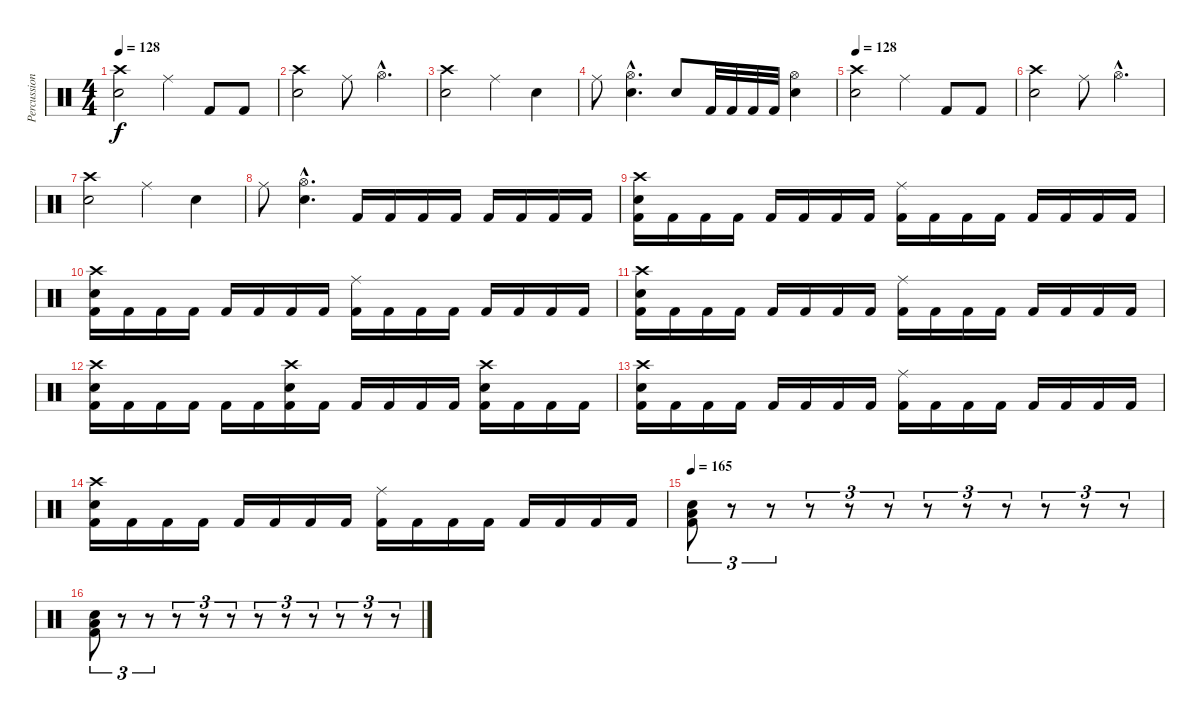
\track ("Percussion" "Percussion") {instrument percussion}
\staff {score}
\articulation defaults
\ts (4 4)
\tempo 128
\clef neutral
\ks c
("Crash high (hit)" "Electric Snare (hit)").2{dy f} "Ride (middle)".4 "Kick (hit) 2".8 "Kick (hit) 2".8 |
("Crash high (hit)" "Electric Snare (hit)").2 "Ride (middle)".8 "Hi-Hat (open)"{hac}.4{d} |
("Crash high (hit)" "Electric Snare (hit)").2 "Ride (middle)".4 "Electric Snare (hit)".4 |
"Ride (middle)".8 ("Hi-Hat (open)"{hac} "Electric Snare (hit)"{hac}).4{d} "Electric Snare (hit)".8 "Kick (hit) 2".32 "Kick (hit) 2".32 "Kick (hit) 2".32 "Kick (hit) 2".32 ("Hi-Hat (open)" "Electric Snare (hit)").4 |
\tempo 128
("Crash high (hit)" "Electric Snare (hit)").2 "Ride (middle)".4 "Kick (hit) 2".8 "Kick (hit) 2".8 |
("Crash high (hit)" "Electric Snare (hit)").2 "Ride (middle)".8 "Hi-Hat (open)"{hac}.4{d} |
("Crash high (hit)" "Electric Snare (hit)").2 "Ride (middle)".4 "Electric Snare (hit)".4 |
"Ride (middle)".8 ("Hi-Hat (open)"{hac} "Electric Snare (hit)"{hac}).4{d} "Kick (hit) 2".16 "Kick (hit) 2".16 "Kick (hit) 2".16 "Kick (hit) 2".16 "Kick (hit) 2".16 "Kick (hit) 2".16 "Kick (hit) 2".16 "Kick (hit) 2".16 |
("Crash high (hit)" "Electric Snare (hit)" "Kick (hit) 2").16 "Kick (hit) 2".16 "Kick (hit) 2".16 "Kick (hit) 2".16 "Kick (hit) 2".16 "Kick (hit) 2".16 "Kick (hit) 2".16 "Kick (hit) 2".16 ("Ride (middle)" "Kick (hit) 2").16 "Kick (hit) 2".16 "Kick (hit) 2".16 "Kick (hit) 2".16 "Kick (hit) 2".16 "Kick (hit) 2".16 "Kick (hit) 2".16 "Kick (hit) 2".16 |
("Crash high (hit)" "Electric Snare (hit)" "Kick (hit) 2").16 "Kick (hit) 2".16 "Kick (hit) 2".16 "Kick (hit) 2".16 "Kick (hit) 2".16 "Kick (hit) 2".16 "Kick (hit) 2".16 "Kick (hit) 2".16 ("Ride (middle)" "Kick (hit) 2").16 "Kick (hit) 2".16 "Kick (hit) 2".16 "Kick (hit) 2".16 "Kick (hit) 2".16 "Kick (hit) 2".16 "Kick (hit) 2".16 "Kick (hit) 2".16 |
("Crash high (hit)" "Electric Snare (hit)" "Kick (hit) 2").16 "Kick (hit) 2".16 "Kick (hit) 2".16 "Kick (hit) 2".16 "Kick (hit) 2".16 "Kick (hit) 2".16 "Kick (hit) 2".16 "Kick (hit) 2".16 ("Ride (middle)" "Kick (hit) 2").16 "Kick (hit) 2".16 "Kick (hit) 2".16 "Kick (hit) 2".16 "Kick (hit) 2".16 "Kick (hit) 2".16 "Kick (hit) 2".16 "Kick (hit) 2".16 |
("Crash high (hit)" "Electric Snare (hit)" "Kick (hit) 2").16 "Kick (hit) 2".16 "Kick (hit) 2".16 "Kick (hit) 2".16 "Kick (hit) 2".16 "Kick (hit) 2".16 ("Crash high (hit)" "Electric Snare (hit)" "Kick (hit) 2").16 "Kick (hit) 2".16 "Kick (hit) 2".16 "Kick (hit) 2".16 "Kick (hit) 2".16 "Kick (hit) 2".16 ("Crash high (hit)" "Electric Snare (hit)" "Kick (hit) 2").16 "Kick (hit) 2".16 "Kick (hit) 2".16 "Kick (hit) 2".16 |
("Crash high (hit)" "Electric Snare (hit)" "Kick (hit) 2").16 "Kick (hit) 2".16 "Kick (hit) 2".16 "Kick (hit) 2".16 "Kick (hit) 2".16 "Kick (hit) 2".16 "Kick (hit) 2".16 "Kick (hit) 2".16 ("Ride (middle)" "Kick (hit) 2").16 "Kick (hit) 2".16 "Kick (hit) 2".16 "Kick (hit) 2".16 "Kick (hit) 2".16 "Kick (hit) 2".16 "Kick (hit) 2".16 "Kick (hit) 2".16 |
("Crash high (hit)" "Electric Snare (hit)" "Kick (hit) 2").16 "Kick (hit) 2".16 "Kick (hit) 2".16 "Kick (hit) 2".16 "Kick (hit) 2".16 "Kick (hit) 2".16 "Kick (hit) 2".16 "Kick (hit) 2".16 ("Ride (middle)" "Kick (hit) 2").16 "Kick (hit) 2".16 "Kick (hit) 2".16 "Kick (hit) 2".16 "Kick (hit) 2".16 "Kick (hit) 2".16 "Kick (hit) 2".16 "Kick (hit) 2".16 |
\tempo 165
("Electric Snare (hit)" "Low Floor Tom (hit)" "Kick (hit) 2").8{tu (3 2)} r.8{tu (3 2)} r.8{tu (3 2)} r.8{tu (3 2)} r.8{tu (3 2)} r.8{tu (3 2)} r.8{tu (3 2)} r.8{tu (3 2)} r.8{tu (3 2)} r.8{tu (3 2)} r.8{tu (3 2)} r.8{tu (3 2)} |
("Electric Snare (hit)" "Low Floor Tom (hit)" "Kick (hit) 2").8{tu (3 2)} r.8{tu (3 2)} r.8{tu (3 2)} r.8{tu (3 2)} r.8{tu (3 2)} r.8{tu (3 2)} r.8{tu (3 2)} r.8{tu (3 2)} r.8{tu (3 2)} r.8{tu (3 2)} r.8{tu (3 2)} r.8{tu (3 2)}
